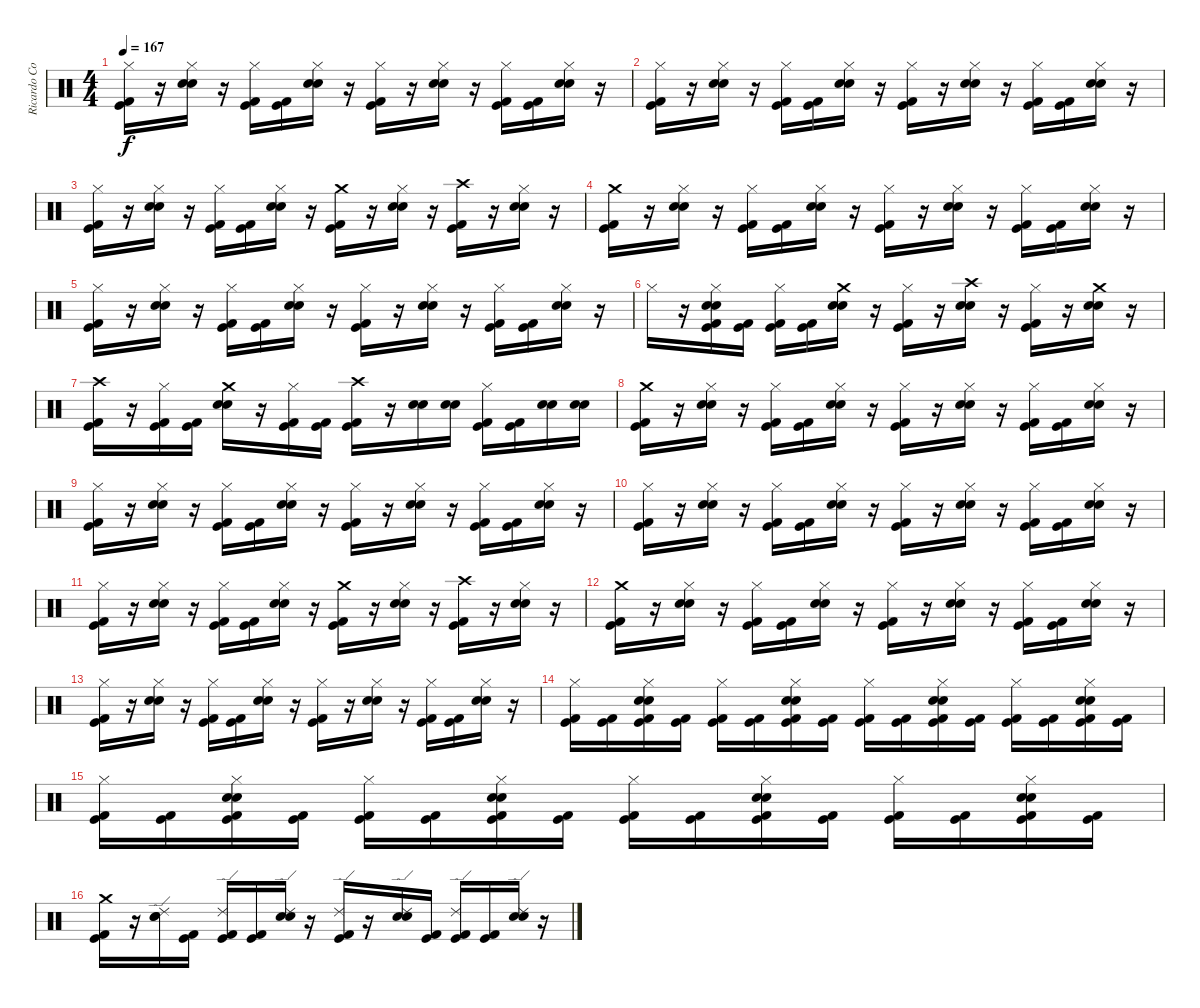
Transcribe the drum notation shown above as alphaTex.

\track ("Ricardo Confessori" "Ricardo Co") {instrument percussion}
\staff {score}
\articulation defaults
\ts (4 4)
\tempo 167
\clef neutral
\ks c
("Hi-Hat (closed)" "Kick (hit) 2" "Kick (hit)").16{dy f} r.16 ("Hi-Hat (closed)" "Electric Snare (hit)" "Snare (hit) 2").16 r.16 ("Kick (hit) 2" "Kick (hit)" "Hi-Hat (closed)").16 ("Kick (hit) 2" "Kick (hit)").16 ("Electric Snare (hit)" "Snare (hit) 2" "Hi-Hat (closed)").16 r.16 ("Kick (hit) 2" "Kick (hit)" "Hi-Hat (closed)").16 r.16 ("Electric Snare (hit)" "Snare (hit) 2" "Hi-Hat (closed)").16 r.16 ("Kick (hit) 2" "Kick (hit)" "Hi-Hat (closed)").16 ("Kick (hit) 2" "Kick (hit)").16 ("Electric Snare (hit)" "Snare (hit) 2" "Hi-Hat (closed)").16 r.16 |
("Hi-Hat (closed)" "Kick (hit) 2" "Kick (hit)").16 r.16 ("Hi-Hat (closed)" "Electric Snare (hit)" "Snare (hit) 2").16 r.16 ("Kick (hit) 2" "Kick (hit)" "Hi-Hat (closed)").16 ("Kick (hit) 2" "Kick (hit)").16 ("Electric Snare (hit)" "Snare (hit) 2" "Hi-Hat (closed)").16 r.16 ("Kick (hit) 2" "Kick (hit)" "Hi-Hat (closed)").16 r.16 ("Electric Snare (hit)" "Snare (hit) 2" "Hi-Hat (closed)").16 r.16 ("Kick (hit) 2" "Kick (hit)" "Hi-Hat (closed)").16 ("Kick (hit) 2" "Kick (hit)").16 ("Electric Snare (hit)" "Snare (hit) 2" "Hi-Hat (closed)").16 r.16 |
("Hi-Hat (closed)" "Kick (hit) 2" "Kick (hit)").16 r.16 ("Hi-Hat (closed)" "Electric Snare (hit)" "Snare (hit) 2").16 r.16 ("Kick (hit) 2" "Kick (hit)" "Hi-Hat (closed)").16 ("Kick (hit) 2" "Kick (hit)").16 ("Electric Snare (hit)" "Snare (hit) 2" "Hi-Hat (closed)").16 r.16 ("Crash medium (hit)" "Kick (hit) 2" "Kick (hit)").16 r.16 ("Electric Snare (hit)" "Snare (hit) 2" "Hi-Hat (closed)").16 r.16 ("Crash high (hit)" "Kick (hit) 2" "Kick (hit)").16 r.16 ("Electric Snare (hit)" "Snare (hit) 2" "Hi-Hat (closed)").16 r.16 |
("Crash medium (hit)" "Kick (hit) 2" "Kick (hit)").16 r.16 ("Hi-Hat (closed)" "Electric Snare (hit)" "Snare (hit) 2").16 r.16 ("Kick (hit) 2" "Kick (hit)" "Hi-Hat (closed)").16 ("Kick (hit) 2" "Kick (hit)").16 ("Electric Snare (hit)" "Snare (hit) 2" "Hi-Hat (closed)").16 r.16 ("Kick (hit) 2" "Kick (hit)" "Hi-Hat (closed)").16 r.16 ("Electric Snare (hit)" "Snare (hit) 2" "Hi-Hat (closed)").16 r.16 ("Kick (hit) 2" "Kick (hit)" "Hi-Hat (closed)").16 ("Kick (hit) 2" "Kick (hit)").16 ("Electric Snare (hit)" "Snare (hit) 2" "Hi-Hat (closed)").16 r.16 |
("Hi-Hat (closed)" "Kick (hit) 2" "Kick (hit)").16 r.16 ("Hi-Hat (closed)" "Electric Snare (hit)" "Snare (hit) 2").16 r.16 ("Kick (hit) 2" "Kick (hit)" "Hi-Hat (closed)").16 ("Kick (hit) 2" "Kick (hit)").16 ("Electric Snare (hit)" "Snare (hit) 2" "Hi-Hat (closed)").16 r.16 ("Kick (hit) 2" "Kick (hit)" "Hi-Hat (closed)").16 r.16 ("Electric Snare (hit)" "Snare (hit) 2" "Hi-Hat (closed)").16 r.16 ("Kick (hit) 2" "Kick (hit)" "Hi-Hat (closed)").16 ("Kick (hit) 2" "Kick (hit)").16 ("Electric Snare (hit)" "Snare (hit) 2" "Hi-Hat (closed)").16 r.16 |
"Hi-Hat (closed)".16 r.16 ("Kick (hit) 2" "Kick (hit)" "Hi-Hat (closed)" "Electric Snare (hit)" "Snare (hit) 2").16 ("Kick (hit) 2" "Kick (hit)").16 ("Kick (hit) 2" "Kick (hit)" "Hi-Hat (closed)").16 ("Kick (hit) 2" "Kick (hit)").16 ("Crash medium (hit)" "Electric Snare (hit)" "Snare (hit) 2").16 r.16 ("Kick (hit) 2" "Kick (hit)" "Hi-Hat (closed)").16 r.16 ("Crash high (hit)" "Electric Snare (hit)" "Snare (hit) 2").16 r.16 ("Kick (hit) 2" "Kick (hit)" "Hi-Hat (closed)").16 r.16 ("Crash medium (hit)" "Electric Snare (hit)" "Snare (hit) 2").16 r.16 |
("Crash high (hit)" "Kick (hit) 2" "Kick (hit)").16 r.16 ("Kick (hit) 2" "Kick (hit)" "Hi-Hat (closed)").16 ("Kick (hit) 2" "Kick (hit)").16 ("Crash medium (hit)" "Electric Snare (hit)" "Snare (hit) 2").16 r.16 ("Kick (hit) 2" "Kick (hit)" "Hi-Hat (closed)").16 ("Kick (hit) 2" "Kick (hit)").16 ("Crash high (hit)" "Kick (hit) 2" "Kick (hit)").16 r.16 ("Electric Snare (hit)" "Snare (hit) 2").16 ("Electric Snare (hit)" "Snare (hit) 2").16 ("Hi-Hat (closed)" "Kick (hit) 2" "Kick (hit)").16 ("Kick (hit) 2" "Kick (hit)").16 ("Electric Snare (hit)" "Snare (hit) 2").16 ("Electric Snare (hit)" "Snare (hit) 2").16 |
("Crash medium (hit)" "Kick (hit) 2" "Kick (hit)").16 r.16 ("Hi-Hat (closed)" "Electric Snare (hit)" "Snare (hit) 2").16 r.16 ("Kick (hit) 2" "Kick (hit)" "Hi-Hat (closed)").16 ("Kick (hit) 2" "Kick (hit)").16 ("Electric Snare (hit)" "Snare (hit) 2" "Hi-Hat (closed)").16 r.16 ("Kick (hit) 2" "Kick (hit)" "Hi-Hat (closed)").16 r.16 ("Electric Snare (hit)" "Snare (hit) 2" "Hi-Hat (closed)").16 r.16 ("Kick (hit) 2" "Kick (hit)" "Hi-Hat (closed)").16 ("Kick (hit) 2" "Kick (hit)").16 ("Electric Snare (hit)" "Snare (hit) 2" "Hi-Hat (closed)").16 r.16 |
("Hi-Hat (closed)" "Kick (hit) 2" "Kick (hit)").16 r.16 ("Hi-Hat (closed)" "Electric Snare (hit)" "Snare (hit) 2").16 r.16 ("Kick (hit) 2" "Kick (hit)" "Hi-Hat (closed)").16 ("Kick (hit) 2" "Kick (hit)").16 ("Electric Snare (hit)" "Snare (hit) 2" "Hi-Hat (closed)").16 r.16 ("Kick (hit) 2" "Kick (hit)" "Hi-Hat (closed)").16 r.16 ("Electric Snare (hit)" "Snare (hit) 2" "Hi-Hat (closed)").16 r.16 ("Kick (hit) 2" "Kick (hit)" "Hi-Hat (closed)").16 ("Kick (hit) 2" "Kick (hit)").16 ("Electric Snare (hit)" "Snare (hit) 2" "Hi-Hat (closed)").16 r.16 |
("Hi-Hat (closed)" "Kick (hit) 2" "Kick (hit)").16 r.16 ("Hi-Hat (closed)" "Electric Snare (hit)" "Snare (hit) 2").16 r.16 ("Kick (hit) 2" "Kick (hit)" "Hi-Hat (closed)").16 ("Kick (hit) 2" "Kick (hit)").16 ("Electric Snare (hit)" "Snare (hit) 2" "Hi-Hat (closed)").16 r.16 ("Kick (hit) 2" "Kick (hit)" "Hi-Hat (closed)").16 r.16 ("Electric Snare (hit)" "Snare (hit) 2" "Hi-Hat (closed)").16 r.16 ("Kick (hit) 2" "Kick (hit)" "Hi-Hat (closed)").16 ("Kick (hit) 2" "Kick (hit)").16 ("Electric Snare (hit)" "Snare (hit) 2" "Hi-Hat (closed)").16 r.16 |
("Hi-Hat (closed)" "Kick (hit) 2" "Kick (hit)").16 r.16 ("Hi-Hat (closed)" "Electric Snare (hit)" "Snare (hit) 2").16 r.16 ("Kick (hit) 2" "Kick (hit)" "Hi-Hat (closed)").16 ("Kick (hit) 2" "Kick (hit)").16 ("Electric Snare (hit)" "Snare (hit) 2" "Hi-Hat (closed)").16 r.16 ("Crash medium (hit)" "Kick (hit) 2" "Kick (hit)").16 r.16 ("Electric Snare (hit)" "Snare (hit) 2" "Hi-Hat (closed)").16 r.16 ("Crash high (hit)" "Kick (hit) 2" "Kick (hit)").16 r.16 ("Electric Snare (hit)" "Snare (hit) 2" "Hi-Hat (closed)").16 r.16 |
("Crash medium (hit)" "Kick (hit) 2" "Kick (hit)").16 r.16 ("Hi-Hat (closed)" "Electric Snare (hit)" "Snare (hit) 2").16 r.16 ("Kick (hit) 2" "Kick (hit)" "Hi-Hat (closed)").16 ("Kick (hit) 2" "Kick (hit)").16 ("Electric Snare (hit)" "Snare (hit) 2" "Hi-Hat (closed)").16 r.16 ("Kick (hit) 2" "Kick (hit)" "Hi-Hat (closed)").16 r.16 ("Electric Snare (hit)" "Snare (hit) 2" "Hi-Hat (closed)").16 r.16 ("Kick (hit) 2" "Kick (hit)" "Hi-Hat (closed)").16 ("Kick (hit) 2" "Kick (hit)").16 ("Electric Snare (hit)" "Snare (hit) 2" "Hi-Hat (closed)").16 r.16 |
("Hi-Hat (closed)" "Kick (hit) 2" "Kick (hit)").16 r.16 ("Hi-Hat (closed)" "Electric Snare (hit)" "Snare (hit) 2").16 r.16 ("Kick (hit) 2" "Kick (hit)" "Hi-Hat (closed)").16 ("Kick (hit) 2" "Kick (hit)").16 ("Electric Snare (hit)" "Snare (hit) 2" "Hi-Hat (closed)").16 r.16 ("Kick (hit) 2" "Kick (hit)" "Hi-Hat (closed)").16 r.16 ("Electric Snare (hit)" "Snare (hit) 2" "Hi-Hat (closed)").16 r.16 ("Kick (hit) 2" "Kick (hit)" "Hi-Hat (closed)").16 ("Kick (hit) 2" "Kick (hit)").16 ("Electric Snare (hit)" "Snare (hit) 2" "Hi-Hat (closed)").16 r.16 |
("Kick (hit) 2" "Kick (hit)" "Hi-Hat (closed)").16 ("Kick (hit) 2" "Kick (hit)").16 ("Kick (hit) 2" "Kick (hit)" "Hi-Hat (closed)" "Electric Snare (hit)" "Snare (hit) 2").16 ("Kick (hit) 2" "Kick (hit)").16 ("Kick (hit) 2" "Kick (hit)" "Hi-Hat (closed)").16 ("Kick (hit) 2" "Kick (hit)").16 ("Hi-Hat (closed)" "Kick (hit) 2" "Kick (hit)" "Electric Snare (hit)" "Snare (hit) 2").16 ("Kick (hit) 2" "Kick (hit)").16 ("Kick (hit) 2" "Kick (hit)" "Hi-Hat (closed)").16 ("Kick (hit) 2" "Kick (hit)").16 ("Hi-Hat (closed)" "Kick (hit) 2" "Kick (hit)" "Electric Snare (hit)" "Snare (hit) 2").16 ("Kick (hit) 2" "Kick (hit)").16 ("Kick (hit) 2" "Kick (hit)" "Hi-Hat (closed)").16 ("Kick (hit) 2" "Kick (hit)").16 ("Kick (hit) 2" "Kick (hit)" "Hi-Hat (closed)" "Electric Snare (hit)" "Snare (hit) 2").16 ("Kick (hit) 2" "Kick (hit)").16 |
("Hi-Hat (closed)" "Kick (hit) 2" "Kick (hit)").16 ("Kick (hit) 2" "Kick (hit)").16 ("Electric Snare (hit)" "Snare (hit) 2" "Kick (hit) 2" "Kick (hit)" "Hi-Hat (closed)").16 ("Kick (hit) 2" "Kick (hit)").16 ("Hi-Hat (closed)" "Kick (hit) 2" "Kick (hit)").16 ("Kick (hit) 2" "Kick (hit)").16 ("Electric Snare (hit)" "Snare (hit) 2" "Kick (hit) 2" "Kick (hit)" "Hi-Hat (closed)").16 ("Kick (hit) 2" "Kick (hit)").16 ("Hi-Hat (closed)" "Kick (hit) 2" "Kick (hit)").16 ("Kick (hit) 2" "Kick (hit)").16 ("Kick (hit) 2" "Hi-Hat (closed)" "Kick (hit)" "Electric Snare (hit)" "Snare (hit) 2").16 ("Kick (hit) 2" "Kick (hit)").16 ("Hi-Hat (closed)" "Kick (hit) 2" "Kick (hit)").16 ("Kick (hit) 2" "Kick (hit)").16 ("Electric Snare (hit)" "Snare (hit) 2" "Kick (hit) 2" "Hi-Hat (closed)" "Kick (hit)").16 ("Kick (hit) 2" "Kick (hit)").16 |
("Crash medium (hit)" "Kick (hit) 2" "Kick (hit)").16 r.16 ("Ride (edge) 2" "Electric Snare (hit)" "Snare (hit) 2").16 ("Kick (hit) 2" "Kick (hit)").16 ("Ride (edge) 2" "Kick (hit) 2" "Kick (hit)").16 ("Kick (hit) 2" "Kick (hit)").16 ("Ride (edge) 2" "Electric Snare (hit)" "Snare (hit) 2").16 r.16 ("Ride (edge) 2" "Kick (hit) 2" "Kick (hit)").16 r.16 ("Ride (edge) 2" "Electric Snare (hit)" "Snare (hit) 2").16 ("Kick (hit) 2" "Kick (hit)").16 ("Ride (edge) 2" "Kick (hit) 2" "Kick (hit)").16 ("Kick (hit) 2" "Kick (hit)").16 ("Ride (edge) 2" "Electric Snare (hit)" "Snare (hit) 2").16 r.16
